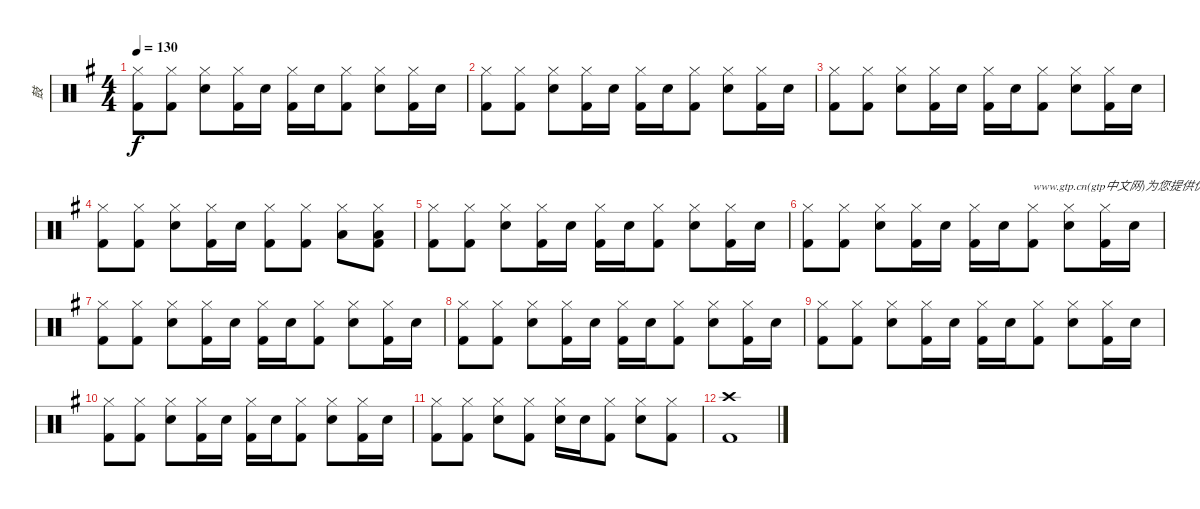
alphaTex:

\track ("鼓" "鼓") {instrument percussion}
\staff {score}
\articulation defaults
\ts (4 4)
\tempo 130
\clef neutral
\ks g
("Hi-Hat (closed)" "Kick (hit) 2").8{dy f} ("Hi-Hat (closed)" "Kick (hit) 2").8 ("Hi-Hat (closed)" "Snare (hit) 2").8 ("Hi-Hat (closed)" "Kick (hit) 2").16 "Snare (hit) 2".16 ("Hi-Hat (closed)" "Kick (hit) 2").16 "Snare (hit) 2".16 ("Hi-Hat (closed)" "Kick (hit) 2").8 ("Hi-Hat (closed)" "Snare (hit) 2").8 ("Hi-Hat (closed)" "Kick (hit) 2").16 "Snare (hit) 2".16 |
("Hi-Hat (closed)" "Kick (hit) 2").8 ("Hi-Hat (closed)" "Kick (hit) 2").8 ("Hi-Hat (closed)" "Snare (hit) 2").8 ("Hi-Hat (closed)" "Kick (hit) 2").16 "Snare (hit) 2".16 ("Hi-Hat (closed)" "Kick (hit) 2").16 "Snare (hit) 2".16 ("Hi-Hat (closed)" "Kick (hit) 2").8 ("Hi-Hat (closed)" "Snare (hit) 2").8 ("Hi-Hat (closed)" "Kick (hit) 2").16 "Snare (hit) 2".16 |
("Hi-Hat (closed)" "Kick (hit) 2").8 ("Hi-Hat (closed)" "Kick (hit) 2").8 ("Hi-Hat (closed)" "Snare (hit) 2").8 ("Hi-Hat (closed)" "Kick (hit) 2").16 "Snare (hit) 2".16 ("Hi-Hat (closed)" "Kick (hit) 2").16 "Snare (hit) 2".16 ("Hi-Hat (closed)" "Kick (hit) 2").8 ("Hi-Hat (closed)" "Snare (hit) 2").8 ("Hi-Hat (closed)" "Kick (hit) 2").16 "Snare (hit) 2".16 |
("Hi-Hat (closed)" "Kick (hit) 2").8 ("Hi-Hat (closed)" "Kick (hit) 2").8 ("Hi-Hat (closed)" "Snare (hit) 2").8 ("Hi-Hat (closed)" "Kick (hit) 2").16 "Snare (hit) 2".16 ("Hi-Hat (closed)" "Kick (hit) 2").8 ("Hi-Hat (closed)" "Kick (hit) 2").8 ("Hi-Hat (closed)" "Low Tom (hit)").8 ("Hi-Hat (closed)" "Low Floor Tom (hit)" "Kick (hit) 2").8 |
("Hi-Hat (closed)" "Kick (hit) 2").8 ("Hi-Hat (closed)" "Kick (hit) 2").8 ("Hi-Hat (closed)" "Snare (hit) 2").8 ("Hi-Hat (closed)" "Kick (hit) 2").16 "Snare (hit) 2".16 ("Hi-Hat (closed)" "Kick (hit) 2").16 "Snare (hit) 2".16 ("Hi-Hat (closed)" "Kick (hit) 2").8 ("Hi-Hat (closed)" "Snare (hit) 2").8 ("Hi-Hat (closed)" "Kick (hit) 2").16 "Snare (hit) 2".16 |
("Hi-Hat (closed)" "Kick (hit) 2").8 ("Hi-Hat (closed)" "Kick (hit) 2").8 ("Hi-Hat (closed)" "Snare (hit) 2").8 ("Hi-Hat (closed)" "Kick (hit) 2").16 "Snare (hit) 2".16 ("Hi-Hat (closed)" "Kick (hit) 2").16 "Snare (hit) 2".16 ("Hi-Hat (closed)" "Kick (hit) 2").8{txt "www.gtp.cn(gtp中文网)为您提供优秀的GTP!"} ("Hi-Hat (closed)" "Snare (hit) 2").8 ("Hi-Hat (closed)" "Kick (hit) 2").16 "Snare (hit) 2".16 |
("Hi-Hat (closed)" "Kick (hit) 2").8 ("Hi-Hat (closed)" "Kick (hit) 2").8 ("Hi-Hat (closed)" "Snare (hit) 2").8 ("Hi-Hat (closed)" "Kick (hit) 2").16 "Snare (hit) 2".16 ("Hi-Hat (closed)" "Kick (hit) 2").16 "Snare (hit) 2".16 ("Hi-Hat (closed)" "Kick (hit) 2").8 ("Hi-Hat (closed)" "Snare (hit) 2").8 ("Hi-Hat (closed)" "Kick (hit) 2").16 "Snare (hit) 2".16 |
("Hi-Hat (closed)" "Kick (hit) 2").8 ("Hi-Hat (closed)" "Kick (hit) 2").8 ("Hi-Hat (closed)" "Snare (hit) 2").8 ("Hi-Hat (closed)" "Kick (hit) 2").16 "Snare (hit) 2".16 ("Hi-Hat (closed)" "Kick (hit) 2").16 "Snare (hit) 2".16 ("Hi-Hat (closed)" "Kick (hit) 2").8 ("Hi-Hat (closed)" "Snare (hit) 2").8 ("Hi-Hat (closed)" "Kick (hit) 2").16 "Snare (hit) 2".16 |
("Hi-Hat (closed)" "Kick (hit) 2").8 ("Hi-Hat (closed)" "Kick (hit) 2").8 ("Hi-Hat (closed)" "Snare (hit) 2").8 ("Hi-Hat (closed)" "Kick (hit) 2").16 "Snare (hit) 2".16 ("Hi-Hat (closed)" "Kick (hit) 2").16 "Snare (hit) 2".16 ("Hi-Hat (closed)" "Kick (hit) 2").8 ("Hi-Hat (closed)" "Snare (hit) 2").8 ("Hi-Hat (closed)" "Kick (hit) 2").16 "Snare (hit) 2".16 |
("Hi-Hat (closed)" "Kick (hit) 2").8 ("Hi-Hat (closed)" "Kick (hit) 2").8 ("Hi-Hat (closed)" "Snare (hit) 2").8 ("Hi-Hat (closed)" "Kick (hit) 2").16 "Snare (hit) 2".16 ("Hi-Hat (closed)" "Kick (hit) 2").16 "Snare (hit) 2".16 ("Hi-Hat (closed)" "Kick (hit) 2").8 ("Hi-Hat (closed)" "Snare (hit) 2").8 ("Hi-Hat (closed)" "Kick (hit) 2").16 "Snare (hit) 2".16 |
("Hi-Hat (closed)" "Kick (hit) 2").8 ("Hi-Hat (closed)" "Kick (hit) 2").8 ("Hi-Hat (closed)" "Snare (hit) 2").8 ("Hi-Hat (closed)" "Kick (hit) 2").8 ("Hi-Hat (closed)" "Snare (hit) 2").16 "Snare (hit) 2".16 ("Hi-Hat (closed)" "Kick (hit) 2").8 ("Hi-Hat (closed)" "Snare (hit) 2").8 ("Hi-Hat (closed)" "Kick (hit) 2").8 |
("Crash high (hit)" "Kick (hit) 2").1
